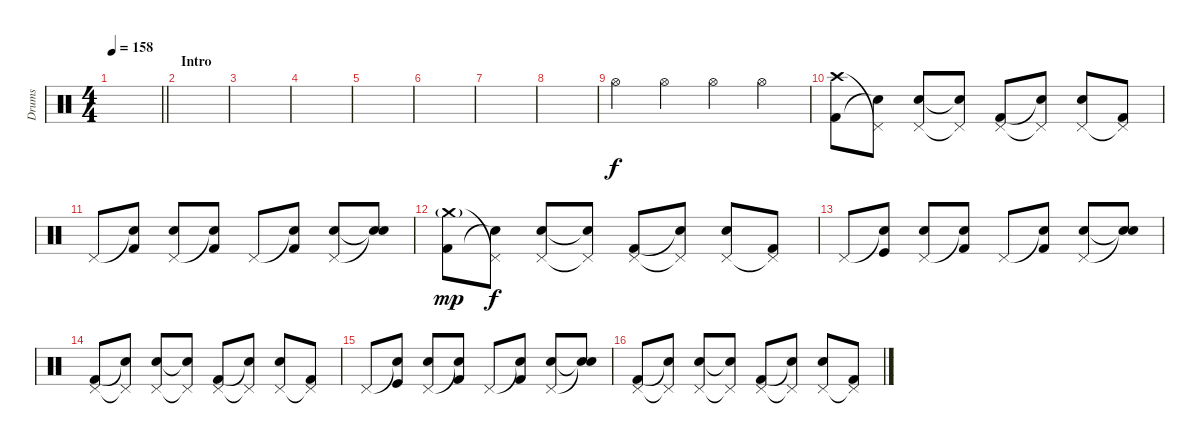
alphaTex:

\track ("Drums" "Drums") {instrument percussion}
\staff {score}
\articulation defaults
\ts (4 4)
\tempo 158
\clef neutral
\barLineRight lightlight
\ks c
|
\section ("" "Intro")
|
|
|
|
|
|
|
"Hi-Hat (open)".4 "Hi-Hat (open)".4 "Hi-Hat (open)".4 "Hi-Hat (open)".4 |
("Crash high (hit)" "Kick (hit) 2").8 ("Pedal Hi-Hat (hit)"{t} "Electric Snare (hit)"{t}).8 ("Pedal Hi-Hat (hit)" "Electric Snare (hit)").8 ("Pedal Hi-Hat (hit)"{t} "Snare (hit)"{t}).8 ("Pedal Hi-Hat (hit)" "Kick (hit) 2").8 ("Pedal Hi-Hat (hit)"{t} "Electric Snare (hit)"{t}).8 ("Pedal Hi-Hat (hit)" "Electric Snare (hit)").8 ("Pedal Hi-Hat (hit)"{t} "Kick (hit) 2").8 |
"Pedal Hi-Hat (hit)".8 ("Snare (hit)"{t} "Kick (hit) 2").8 ("Pedal Hi-Hat (hit)" "Electric Snare (hit)").8 ("Snare (hit)"{t} "Kick (hit) 2").8 "Pedal Hi-Hat (hit)".8 ("Snare (hit)"{t} "Kick (hit) 2").8 ("Pedal Hi-Hat (hit)" "Electric Snare (hit)").8 ("Snare (hit)"{t} "Snare (hit)"{t}).8 |
("Crash medium (hit)"{g} "Kick (hit) 2").8{dy mp} ("Pedal Hi-Hat (hit)"{t} "Electric Snare (hit)"{t}).8{dy f} ("Pedal Hi-Hat (hit)" "Electric Snare (hit)").8 ("Pedal Hi-Hat (hit)"{t} "Snare (hit)"{t}).8 ("Pedal Hi-Hat (hit)" "Kick (hit) 2").8 ("Pedal Hi-Hat (hit)"{t} "Electric Snare (hit)"{t}).8 ("Pedal Hi-Hat (hit)" "Electric Snare (hit)").8 ("Pedal Hi-Hat (hit)"{t} "Kick (hit) 2").8 |
"Pedal Hi-Hat (hit)".8 ("Snare (hit)"{t} "Kick (hit)").8 ("Pedal Hi-Hat (hit)" "Electric Snare (hit)").8 ("Snare (hit)"{t} "Kick (hit) 2").8 "Pedal Hi-Hat (hit)".8 ("Snare (hit)"{t} "Kick (hit) 2").8 ("Pedal Hi-Hat (hit)" "Electric Snare (hit)").8 ("Snare (hit)"{t} "Snare (hit)"{t}).8 |
("Pedal Hi-Hat (hit)" "Kick (hit) 2").8 ("Pedal Hi-Hat (hit)"{t} "Snare (hit)"{t}).8 ("Pedal Hi-Hat (hit)" "Electric Snare (hit)").8 ("Pedal Hi-Hat (hit)"{t} "Snare (hit)"{t}).8 ("Pedal Hi-Hat (hit)" "Kick (hit) 2").8 ("Pedal Hi-Hat (hit)"{t} "Electric Snare (hit)"{t}).8 ("Pedal Hi-Hat (hit)" "Electric Snare (hit)").8 ("Pedal Hi-Hat (hit)"{t} "Kick (hit) 2").8 |
"Pedal Hi-Hat (hit)".8 ("Snare (hit)"{t} "Kick (hit)").8 ("Pedal Hi-Hat (hit)" "Electric Snare (hit)").8 ("Snare (hit)"{t} "Kick (hit) 2").8 "Pedal Hi-Hat (hit)".8 ("Snare (hit)"{t} "Kick (hit) 2").8 ("Pedal Hi-Hat (hit)" "Electric Snare (hit)").8 ("Snare (hit)"{t} "Snare (hit)"{t}).8 |
("Pedal Hi-Hat (hit)" "Kick (hit) 2").8 ("Pedal Hi-Hat (hit)"{t} "Electric Snare (hit)"{t}).8 ("Pedal Hi-Hat (hit)" "Electric Snare (hit)").8 ("Pedal Hi-Hat (hit)"{t} "Snare (hit)"{t}).8 ("Pedal Hi-Hat (hit)" "Kick (hit) 2").8 ("Pedal Hi-Hat (hit)"{t} "Electric Snare (hit)"{t}).8 ("Pedal Hi-Hat (hit)" "Electric Snare (hit)").8 ("Pedal Hi-Hat (hit)"{t} "Kick (hit) 2").8
